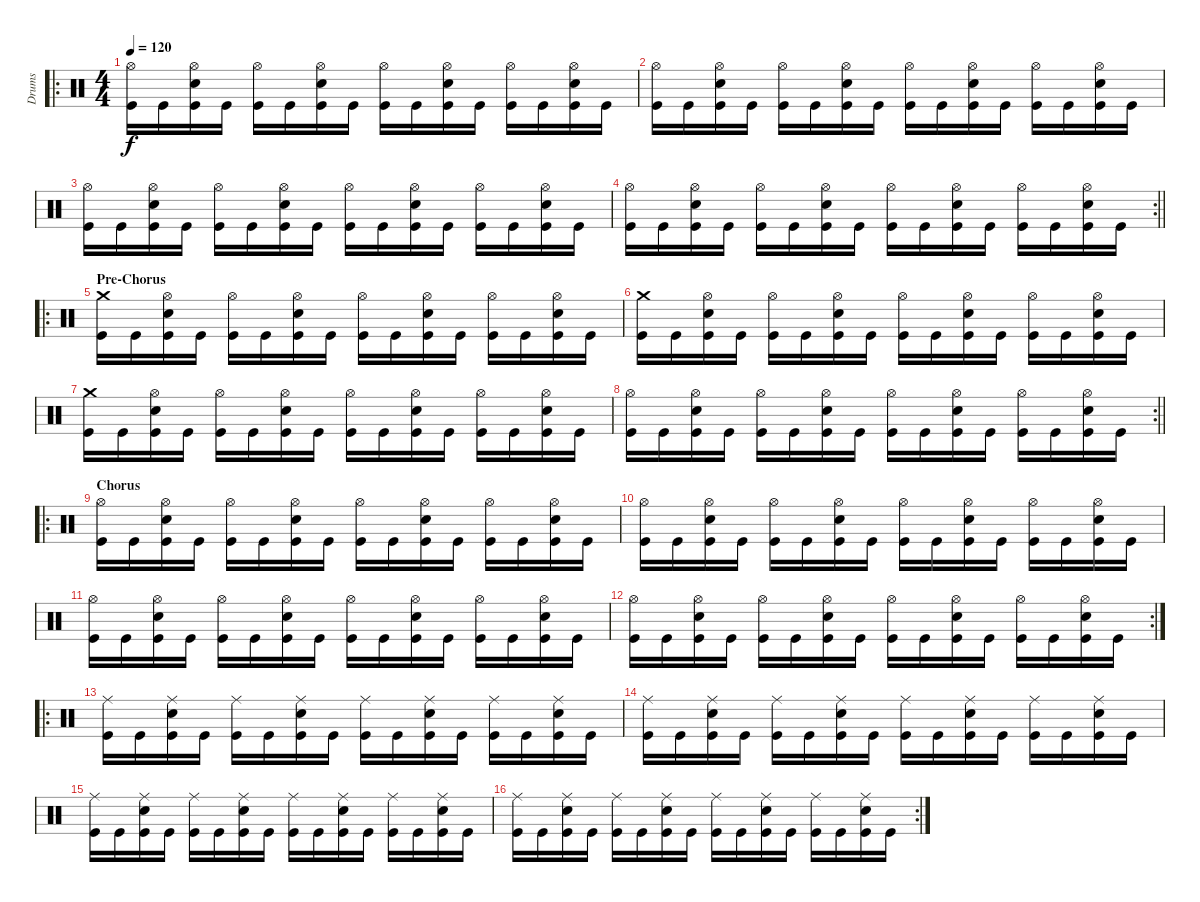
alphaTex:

\track ("Drums" "Drums") {instrument percussion}
\staff {score}
\articulation defaults
\ro
\ts (4 4)
\tempo 120
\clef neutral
\ks c
("Hi-Hat (open)" "Kick (hit)").16{dy f} "Kick (hit)".16 ("Hi-Hat (open)" "Snare (hit) 2" "Kick (hit)").16 "Kick (hit)".16 ("Hi-Hat (open)" "Kick (hit)").16 "Kick (hit)".16 ("Hi-Hat (open)" "Snare (hit) 2" "Kick (hit)").16 "Kick (hit)".16 ("Hi-Hat (open)" "Kick (hit)").16 "Kick (hit)".16 ("Hi-Hat (open)" "Snare (hit) 2" "Kick (hit)").16 "Kick (hit)".16 ("Hi-Hat (open)" "Kick (hit)").16 "Kick (hit)".16 ("Hi-Hat (open)" "Snare (hit) 2" "Kick (hit)").16 "Kick (hit)".16 |
("Hi-Hat (open)" "Kick (hit)").16 "Kick (hit)".16 ("Hi-Hat (open)" "Snare (hit) 2" "Kick (hit)").16 "Kick (hit)".16 ("Hi-Hat (open)" "Kick (hit)").16 "Kick (hit)".16 ("Hi-Hat (open)" "Snare (hit) 2" "Kick (hit)").16 "Kick (hit)".16 ("Hi-Hat (open)" "Kick (hit)").16 "Kick (hit)".16 ("Hi-Hat (open)" "Snare (hit) 2" "Kick (hit)").16 "Kick (hit)".16 ("Hi-Hat (open)" "Kick (hit)").16 "Kick (hit)".16 ("Hi-Hat (open)" "Snare (hit) 2" "Kick (hit)").16 "Kick (hit)".16 |
("Hi-Hat (open)" "Kick (hit)").16 "Kick (hit)".16 ("Hi-Hat (open)" "Snare (hit) 2" "Kick (hit)").16 "Kick (hit)".16 ("Hi-Hat (open)" "Kick (hit)").16 "Kick (hit)".16 ("Hi-Hat (open)" "Snare (hit) 2" "Kick (hit)").16 "Kick (hit)".16 ("Hi-Hat (open)" "Kick (hit)").16 "Kick (hit)".16 ("Hi-Hat (open)" "Snare (hit) 2" "Kick (hit)").16 "Kick (hit)".16 ("Hi-Hat (open)" "Kick (hit)").16 "Kick (hit)".16 ("Hi-Hat (open)" "Snare (hit) 2" "Kick (hit)").16 "Kick (hit)".16 |
\rc 2
\barLineRight lightlight
("Hi-Hat (open)" "Kick (hit)").16 "Kick (hit)".16 ("Hi-Hat (open)" "Snare (hit) 2" "Kick (hit)").16 "Kick (hit)".16 ("Hi-Hat (open)" "Kick (hit)").16 "Kick (hit)".16 ("Hi-Hat (open)" "Snare (hit) 2" "Kick (hit)").16 "Kick (hit)".16 ("Hi-Hat (open)" "Kick (hit)").16 "Kick (hit)".16 ("Hi-Hat (open)" "Snare (hit) 2" "Kick (hit)").16 "Kick (hit)".16 ("Hi-Hat (open)" "Kick (hit)").16 "Kick (hit)".16 ("Hi-Hat (open)" "Snare (hit) 2" "Kick (hit)").16 "Kick (hit)".16 |
\ro
\section ("" "Pre-Chorus")
("Crash medium (hit)" "Kick (hit)").16 "Kick (hit)".16 ("Hi-Hat (open)" "Snare (hit) 2" "Kick (hit)").16 "Kick (hit)".16 ("Hi-Hat (open)" "Kick (hit)").16 "Kick (hit)".16 ("Hi-Hat (open)" "Snare (hit) 2" "Kick (hit)").16 "Kick (hit)".16 ("Hi-Hat (open)" "Kick (hit)").16 "Kick (hit)".16 ("Hi-Hat (open)" "Snare (hit) 2" "Kick (hit)").16 "Kick (hit)".16 ("Hi-Hat (open)" "Kick (hit)").16 "Kick (hit)".16 ("Hi-Hat (open)" "Snare (hit) 2" "Kick (hit)").16 "Kick (hit)".16 |
("Crash medium (hit)" "Kick (hit)").16 "Kick (hit)".16 ("Hi-Hat (open)" "Snare (hit) 2" "Kick (hit)").16 "Kick (hit)".16 ("Hi-Hat (open)" "Kick (hit)").16 "Kick (hit)".16 ("Hi-Hat (open)" "Snare (hit) 2" "Kick (hit)").16 "Kick (hit)".16 ("Hi-Hat (open)" "Kick (hit)").16 "Kick (hit)".16 ("Hi-Hat (open)" "Snare (hit) 2" "Kick (hit)").16 "Kick (hit)".16 ("Hi-Hat (open)" "Kick (hit)").16 "Kick (hit)".16 ("Hi-Hat (open)" "Snare (hit) 2" "Kick (hit)").16 "Kick (hit)".16 |
("Crash medium (hit)" "Kick (hit)").16 "Kick (hit)".16 ("Hi-Hat (open)" "Snare (hit) 2" "Kick (hit)").16 "Kick (hit)".16 ("Hi-Hat (open)" "Kick (hit)").16 "Kick (hit)".16 ("Hi-Hat (open)" "Snare (hit) 2" "Kick (hit)").16 "Kick (hit)".16 ("Hi-Hat (open)" "Kick (hit)").16 "Kick (hit)".16 ("Hi-Hat (open)" "Snare (hit) 2" "Kick (hit)").16 "Kick (hit)".16 ("Hi-Hat (open)" "Kick (hit)").16 "Kick (hit)".16 ("Hi-Hat (open)" "Snare (hit) 2" "Kick (hit)").16 "Kick (hit)".16 |
\rc 2
\barLineRight lightlight
("Hi-Hat (open)" "Kick (hit)").16 "Kick (hit)".16 ("Hi-Hat (open)" "Snare (hit) 2" "Kick (hit)").16 "Kick (hit)".16 ("Hi-Hat (open)" "Kick (hit)").16 "Kick (hit)".16 ("Hi-Hat (open)" "Snare (hit) 2" "Kick (hit)").16 "Kick (hit)".16 ("Hi-Hat (open)" "Kick (hit)").16 "Kick (hit)".16 ("Hi-Hat (open)" "Snare (hit) 2" "Kick (hit)").16 "Kick (hit)".16 ("Hi-Hat (open)" "Kick (hit)").16 "Kick (hit)".16 ("Hi-Hat (open)" "Snare (hit) 2" "Kick (hit)").16 "Kick (hit)".16 |
\ro
\section ("" "Chorus")
("Hi-Hat (open)" "Kick (hit)").16 "Kick (hit)".16 ("Hi-Hat (open)" "Snare (hit) 2" "Kick (hit)").16 "Kick (hit)".16 ("Hi-Hat (open)" "Kick (hit)").16 "Kick (hit)".16 ("Hi-Hat (open)" "Snare (hit) 2" "Kick (hit)").16 "Kick (hit)".16 ("Hi-Hat (open)" "Kick (hit)").16 "Kick (hit)".16 ("Hi-Hat (open)" "Snare (hit) 2" "Kick (hit)").16 "Kick (hit)".16 ("Hi-Hat (open)" "Kick (hit)").16 "Kick (hit)".16 ("Hi-Hat (open)" "Snare (hit) 2" "Kick (hit)").16 "Kick (hit)".16 |
("Hi-Hat (open)" "Kick (hit)").16 "Kick (hit)".16 ("Hi-Hat (open)" "Snare (hit) 2" "Kick (hit)").16 "Kick (hit)".16 ("Hi-Hat (open)" "Kick (hit)").16 "Kick (hit)".16 ("Hi-Hat (open)" "Snare (hit) 2" "Kick (hit)").16 "Kick (hit)".16 ("Hi-Hat (open)" "Kick (hit)").16 "Kick (hit)".16 ("Hi-Hat (open)" "Snare (hit) 2" "Kick (hit)").16 "Kick (hit)".16 ("Hi-Hat (open)" "Kick (hit)").16 "Kick (hit)".16 ("Hi-Hat (open)" "Snare (hit) 2" "Kick (hit)").16 "Kick (hit)".16 |
("Hi-Hat (open)" "Kick (hit)").16 "Kick (hit)".16 ("Hi-Hat (open)" "Snare (hit) 2" "Kick (hit)").16 "Kick (hit)".16 ("Hi-Hat (open)" "Kick (hit)").16 "Kick (hit)".16 ("Hi-Hat (open)" "Snare (hit) 2" "Kick (hit)").16 "Kick (hit)".16 ("Hi-Hat (open)" "Kick (hit)").16 "Kick (hit)".16 ("Hi-Hat (open)" "Snare (hit) 2" "Kick (hit)").16 "Kick (hit)".16 ("Hi-Hat (open)" "Kick (hit)").16 "Kick (hit)".16 ("Hi-Hat (open)" "Snare (hit) 2" "Kick (hit)").16 "Kick (hit)".16 |
\rc 2
("Hi-Hat (open)" "Kick (hit)").16 "Kick (hit)".16 ("Hi-Hat (open)" "Snare (hit) 2" "Kick (hit)").16 "Kick (hit)".16 ("Hi-Hat (open)" "Kick (hit)").16 "Kick (hit)".16 ("Hi-Hat (open)" "Snare (hit) 2" "Kick (hit)").16 "Kick (hit)".16 ("Hi-Hat (open)" "Kick (hit)").16 "Kick (hit)".16 ("Hi-Hat (open)" "Snare (hit) 2" "Kick (hit)").16 "Kick (hit)".16 ("Hi-Hat (open)" "Kick (hit)").16 "Kick (hit)".16 ("Hi-Hat (open)" "Snare (hit) 2" "Kick (hit)").16 "Kick (hit)".16 |
\ro
("Ride (middle)" "Kick (hit)").16 "Kick (hit)".16 ("Ride (middle)" "Snare (hit) 2" "Kick (hit)").16 "Kick (hit)".16 ("Ride (middle)" "Kick (hit)").16 "Kick (hit)".16 ("Ride (middle)" "Snare (hit) 2" "Kick (hit)").16 "Kick (hit)".16 ("Ride (middle)" "Kick (hit)").16 "Kick (hit)".16 ("Ride (middle)" "Snare (hit) 2" "Kick (hit)").16 "Kick (hit)".16 ("Ride (middle)" "Kick (hit)").16 "Kick (hit)".16 ("Ride (middle)" "Snare (hit) 2" "Kick (hit)").16 "Kick (hit)".16 |
("Ride (middle)" "Kick (hit)").16 "Kick (hit)".16 ("Ride (middle)" "Snare (hit) 2" "Kick (hit)").16 "Kick (hit)".16 ("Ride (middle)" "Kick (hit)").16 "Kick (hit)".16 ("Ride (middle)" "Snare (hit) 2" "Kick (hit)").16 "Kick (hit)".16 ("Ride (middle)" "Kick (hit)").16 "Kick (hit)".16 ("Ride (middle)" "Snare (hit) 2" "Kick (hit)").16 "Kick (hit)".16 ("Ride (middle)" "Kick (hit)").16 "Kick (hit)".16 ("Ride (middle)" "Snare (hit) 2" "Kick (hit)").16 "Kick (hit)".16 |
("Ride (middle)" "Kick (hit)").16 "Kick (hit)".16 ("Ride (middle)" "Snare (hit) 2" "Kick (hit)").16 "Kick (hit)".16 ("Ride (middle)" "Kick (hit)").16 "Kick (hit)".16 ("Ride (middle)" "Snare (hit) 2" "Kick (hit)").16 "Kick (hit)".16 ("Ride (middle)" "Kick (hit)").16 "Kick (hit)".16 ("Ride (middle)" "Snare (hit) 2" "Kick (hit)").16 "Kick (hit)".16 ("Ride (middle)" "Kick (hit)").16 "Kick (hit)".16 ("Ride (middle)" "Snare (hit) 2" "Kick (hit)").16 "Kick (hit)".16 |
\rc 2
("Ride (middle)" "Kick (hit)").16 "Kick (hit)".16 ("Ride (middle)" "Snare (hit) 2" "Kick (hit)").16 "Kick (hit)".16 ("Ride (middle)" "Kick (hit)").16 "Kick (hit)".16 ("Ride (middle)" "Snare (hit) 2" "Kick (hit)").16 "Kick (hit)".16 ("Ride (middle)" "Kick (hit)").16 "Kick (hit)".16 ("Ride (middle)" "Snare (hit) 2" "Kick (hit)").16 "Kick (hit)".16 ("Ride (middle)" "Kick (hit)").16 "Kick (hit)".16 ("Ride (middle)" "Snare (hit) 2" "Kick (hit)").16 "Kick (hit)".16
